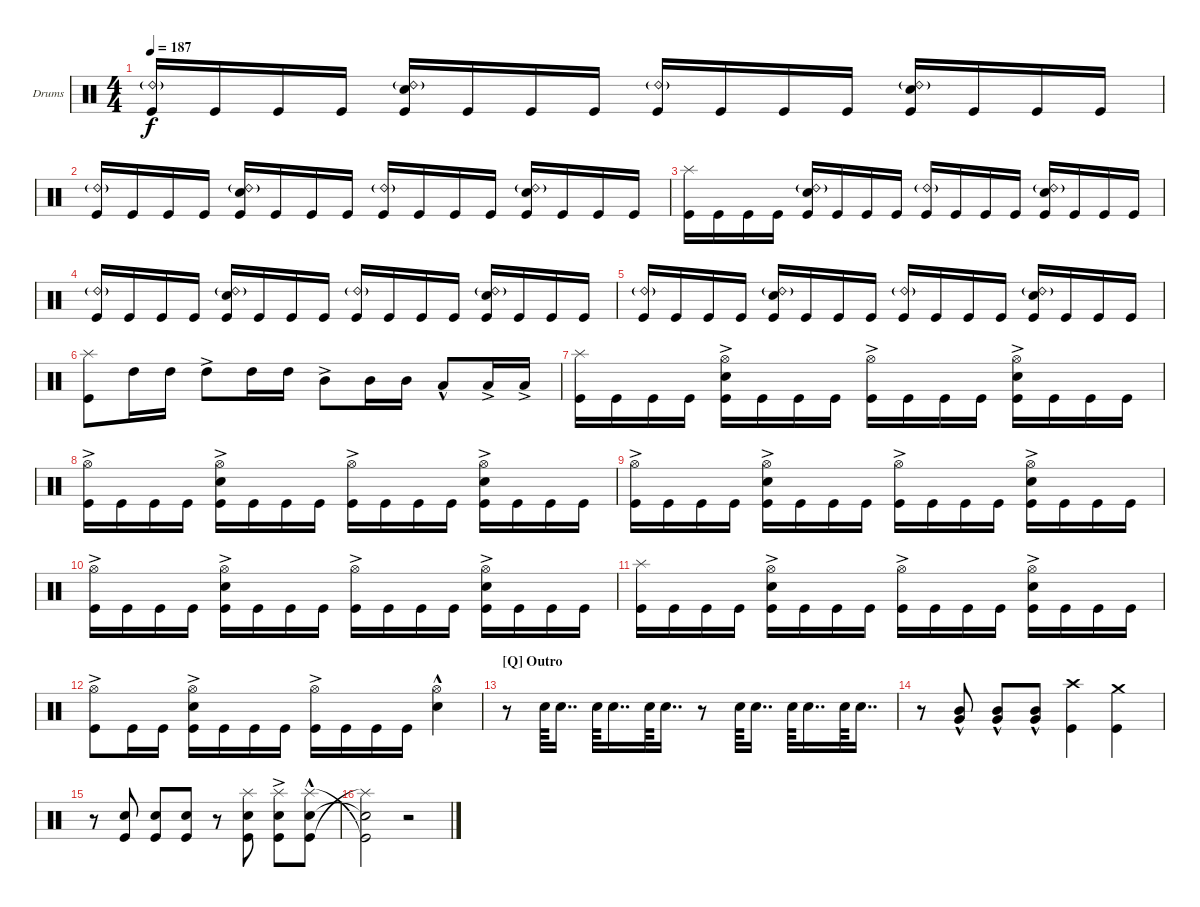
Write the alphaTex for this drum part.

\defaultSystemsLayout 4
\bracketExtendMode groupsimilarinstruments
\firstSystemTrackNameOrientation horizontal
\otherSystemsTrackNameOrientation horizontal
\track ("Drumkit" "Drums") {instrument percussion}
\staff {score}
\articulation defaults
\ts (4 4)
\tempo 187
\clef neutral
\ks c
("Kick (hit)" "Ride (bell) 2"{g}).16{dy f} "Kick (hit)".16 "Kick (hit)".16 "Kick (hit)".16 ("Snare (hit) 2" "Ride (bell) 2"{g} "Kick (hit)").16 "Kick (hit)".16 "Kick (hit)".16 "Kick (hit)".16 ("Kick (hit)" "Ride (bell) 2"{g}).16 "Kick (hit)".16 "Kick (hit)".16 "Kick (hit)".16 ("Snare (hit) 2" "Ride (bell) 2"{g} "Kick (hit)").16 "Kick (hit)".16 "Kick (hit)".16 "Kick (hit)".16 |
("Kick (hit)" "Ride (bell) 2"{g}).16 "Kick (hit)".16 "Kick (hit)".16 "Kick (hit)".16 ("Snare (hit) 2" "Ride (bell) 2"{g} "Kick (hit)").16 "Kick (hit)".16 "Kick (hit)".16 "Kick (hit)".16 ("Kick (hit)" "Ride (bell) 2"{g}).16 "Kick (hit)".16 "Kick (hit)".16 "Kick (hit)".16 ("Snare (hit) 2" "Ride (bell) 2"{g} "Kick (hit)").16 "Kick (hit)".16 "Kick (hit)".16 "Kick (hit)".16 |
("Kick (hit)" "Splash (hit)").16 "Kick (hit)".16 "Kick (hit)".16 "Kick (hit)".16 ("Snare (hit) 2" "Ride (bell) 2"{g} "Kick (hit)").16 "Kick (hit)".16 "Kick (hit)".16 "Kick (hit)".16 ("Kick (hit)" "Ride (bell) 2"{g}).16 "Kick (hit)".16 "Kick (hit)".16 "Kick (hit)".16 ("Snare (hit) 2" "Ride (bell) 2"{g} "Kick (hit)").16 "Kick (hit)".16 "Kick (hit)".16 "Kick (hit)".16 |
("Kick (hit)" "Ride (bell) 2"{g}).16 "Kick (hit)".16 "Kick (hit)".16 "Kick (hit)".16 ("Snare (hit) 2" "Ride (bell) 2"{g} "Kick (hit)").16 "Kick (hit)".16 "Kick (hit)".16 "Kick (hit)".16 ("Kick (hit)" "Ride (bell) 2"{g}).16 "Kick (hit)".16 "Kick (hit)".16 "Kick (hit)".16 ("Snare (hit) 2" "Ride (bell) 2"{g} "Kick (hit)").16 "Kick (hit)".16 "Kick (hit)".16 "Kick (hit)".16 |
("Kick (hit)" "Ride (bell) 2"{g}).16 "Kick (hit)".16 "Kick (hit)".16 "Kick (hit)".16 ("Snare (hit) 2" "Ride (bell) 2"{g} "Kick (hit)").16 "Kick (hit)".16 "Kick (hit)".16 "Kick (hit)".16 ("Kick (hit)" "Ride (bell) 2"{g}).16 "Kick (hit)".16 "Kick (hit)".16 "Kick (hit)".16 ("Snare (hit) 2" "Ride (bell) 2"{g} "Kick (hit)").16 "Kick (hit)".16 "Kick (hit)".16 "Kick (hit)".16 |
("Kick (hit)" "Splash (hit)").8 "High Tom (hit)".16 "High Tom (hit)".16 "High Tom (hit)"{ac}.8 "High Tom (hit)".16 "High Tom (hit)".16 "Mid Tom (hit)"{ac}.8 "Mid Tom (hit)".16 "Mid Tom (hit)".16 "Low Tom (hit)"{hac}.8 "Low Tom (hit)"{ac}.16 "Low Tom (hit)"{ac}.16 |
("Splash (hit)" "Kick (hit)").16 "Kick (hit)".16 "Kick (hit)".16 "Kick (hit)".16 ("Snare (hit) 2" "Hi-Hat (open)"{ac} "Kick (hit)").16 "Kick (hit)".16 "Kick (hit)".16 "Kick (hit)".16 ("Kick (hit)" "Hi-Hat (open)"{ac}).16 "Kick (hit)".16 "Kick (hit)".16 "Kick (hit)".16 ("Snare (hit) 2" "Hi-Hat (open)"{ac} "Kick (hit)").16 "Kick (hit)".16 "Kick (hit)".16 "Kick (hit)".16 |
("Kick (hit)" "Hi-Hat (open)"{ac}).16 "Kick (hit)".16 "Kick (hit)".16 "Kick (hit)".16 ("Snare (hit) 2" "Hi-Hat (open)"{ac} "Kick (hit)").16 "Kick (hit)".16 "Kick (hit)".16 "Kick (hit)".16 ("Kick (hit)" "Hi-Hat (open)"{ac}).16 "Kick (hit)".16 "Kick (hit)".16 "Kick (hit)".16 ("Snare (hit) 2" "Hi-Hat (open)"{ac} "Kick (hit)").16 "Kick (hit)".16 "Kick (hit)".16 "Kick (hit)".16 |
("Kick (hit)" "Hi-Hat (open)"{ac}).16 "Kick (hit)".16 "Kick (hit)".16 "Kick (hit)".16 ("Snare (hit) 2" "Hi-Hat (open)"{ac} "Kick (hit)").16 "Kick (hit)".16 "Kick (hit)".16 "Kick (hit)".16 ("Kick (hit)" "Hi-Hat (open)"{ac}).16 "Kick (hit)".16 "Kick (hit)".16 "Kick (hit)".16 ("Snare (hit) 2" "Hi-Hat (open)"{ac} "Kick (hit)").16 "Kick (hit)".16 "Kick (hit)".16 "Kick (hit)".16 |
("Kick (hit)" "Hi-Hat (open)"{ac}).16 "Kick (hit)".16 "Kick (hit)".16 "Kick (hit)".16 ("Snare (hit) 2" "Hi-Hat (open)"{ac} "Kick (hit)").16 "Kick (hit)".16 "Kick (hit)".16 "Kick (hit)".16 ("Kick (hit)" "Hi-Hat (open)"{ac}).16 "Kick (hit)".16 "Kick (hit)".16 "Kick (hit)".16 ("Snare (hit) 2" "Hi-Hat (open)"{ac} "Kick (hit)").16 "Kick (hit)".16 "Kick (hit)".16 "Kick (hit)".16 |
("Splash (hit)" "Kick (hit)").16 "Kick (hit)".16 "Kick (hit)".16 "Kick (hit)".16 ("Snare (hit) 2" "Hi-Hat (open)"{ac} "Kick (hit)").16 "Kick (hit)".16 "Kick (hit)".16 "Kick (hit)".16 ("Kick (hit)" "Hi-Hat (open)"{ac}).16 "Kick (hit)".16 "Kick (hit)".16 "Kick (hit)".16 ("Snare (hit) 2" "Hi-Hat (open)"{ac} "Kick (hit)").16 "Kick (hit)".16 "Kick (hit)".16 "Kick (hit)".16 |
("Kick (hit)" "Hi-Hat (open)"{ac}).8 "Kick (hit)".16 "Kick (hit)".16 ("Snare (hit) 2" "Hi-Hat (open)"{ac} "Kick (hit)").16 "Kick (hit)".16 "Kick (hit)".16 "Kick (hit)".16 ("Kick (hit)" "Hi-Hat (open)"{ac}).16 "Kick (hit)".16 "Kick (hit)".16 "Kick (hit)".16 ("Snare (hit) 2" "Hi-Hat (open)"{hac}).4 |
\section ("Q" "Outro")
r.8 "Snare (hit) 2".64 "Snare (hit) 2".16{dd} "Snare (hit) 2".64 "Snare (hit) 2".16{dd} "Snare (hit) 2".64 "Snare (hit) 2".16{dd} r.8 "Snare (hit) 2".64 "Snare (hit) 2".16{dd} "Snare (hit) 2".64 "Snare (hit) 2".16{dd} "Snare (hit) 2".64 "Snare (hit) 2".16{dd} |
r.8 ("Mid Tom (hit)" "Very Low Tom (hit)"{hac}).8 ("Mid Tom (hit)" "Very Low Tom (hit)"{hac}).8 ("Mid Tom (hit)" "Very Low Tom (hit)"{hac}).8 ("Kick (hit)" "Crash high (hit)").4 ("Kick (hit)" "Crash medium (hit)").4 |
r.8 ("Kick (hit)" "Snare (hit) 2").8 ("Kick (hit)" "Snare (hit) 2").8 ("Kick (hit)" "Snare (hit) 2").8 r.8 ("Kick (hit)" "Snare (hit) 2" "Splash (hit)").8 ("Kick (hit)" "Snare (hit) 2"{ac} "Splash (hit)").8 ("Kick (hit)" "Snare (hit) 2"{hac} "Splash (hit)").8 |
("Splash (hit)"{t} "Snare (hit) 2"{t} "Kick (hit)"{t}).2 r.2
